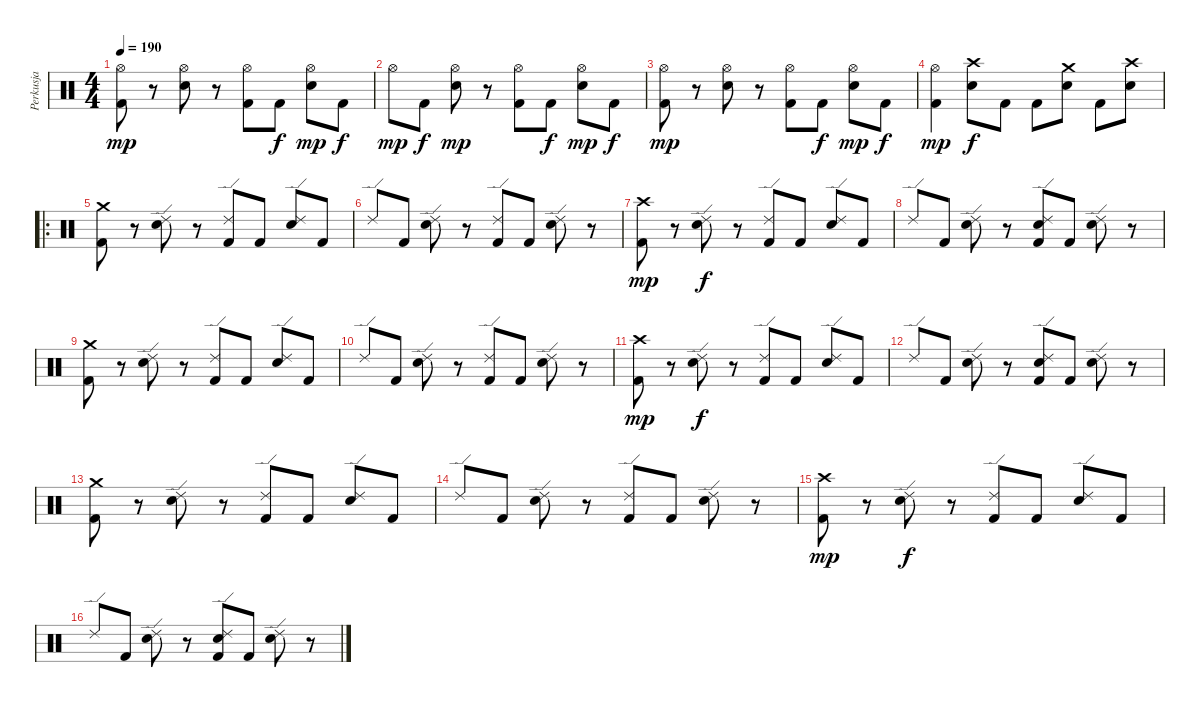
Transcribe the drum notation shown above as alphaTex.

\track ("Perkusja" "Perkusja") {instrument percussion}
\staff {score}
\articulation defaults
\ts (4 4)
\tempo 190
\clef neutral
\ks c
("Hi-Hat (open)" "Kick (hit) 2").8{dy mp} r.8 ("Hi-Hat (open)" "Snare (hit) 2").8 r.8 ("Hi-Hat (open)" "Kick (hit) 2").8 "Kick (hit) 2".8{dy f} ("Hi-Hat (open)" "Snare (hit) 2").8{dy mp} "Kick (hit) 2".8{dy f} |
"Hi-Hat (open)".8{dy mp} "Kick (hit) 2".8{dy f} ("Hi-Hat (open)" "Snare (hit) 2").8{dy mp} r.8 ("Hi-Hat (open)" "Kick (hit) 2").8 "Kick (hit) 2".8{dy f} ("Hi-Hat (open)" "Snare (hit) 2").8{dy mp} "Kick (hit) 2".8{dy f} |
("Hi-Hat (open)" "Kick (hit) 2").8{dy mp} r.8 ("Hi-Hat (open)" "Snare (hit) 2").8 r.8 ("Hi-Hat (open)" "Kick (hit) 2").8 "Kick (hit) 2".8{dy f} ("Hi-Hat (open)" "Snare (hit) 2").8{dy mp} "Kick (hit) 2".8{dy f} |
("Hi-Hat (open)" "Kick (hit) 2").4{dy mp} ("Crash high (hit)" "Snare (hit) 2").8{dy f} "Kick (hit) 2".8 "Kick (hit) 2".8 ("Crash medium (hit)" "Snare (hit) 2").8 "Kick (hit) 2".8 ("Crash high (hit)" "Snare (hit) 2").8 |
\ro
("Crash medium (hit)" "Kick (hit) 2").8 r.8 ("Ride (edge) 2" "Snare (hit) 2").8 r.8 ("Ride (edge) 2" "Kick (hit) 2").8 "Kick (hit) 2".8 ("Ride (edge) 2" "Snare (hit) 2").8 "Kick (hit) 2".8 |
"Ride (edge) 2".8 "Kick (hit) 2".8 ("Ride (edge) 2" "Snare (hit) 2").8 r.8 ("Ride (edge) 2" "Kick (hit) 2").8 "Kick (hit) 2".8 ("Ride (edge) 2" "Snare (hit) 2").8 r.8 |
("Crash high (hit)" "Kick (hit) 2").8{dy mp} r.8 ("Ride (edge) 2" "Snare (hit) 2").8{dy f} r.8 ("Ride (edge) 2" "Kick (hit) 2").8 "Kick (hit) 2".8 ("Ride (edge) 2" "Snare (hit) 2").8 "Kick (hit) 2".8 |
"Ride (edge) 2".8 "Kick (hit) 2".8 ("Ride (edge) 2" "Snare (hit) 2").8 r.8 ("Ride (edge) 2" "Snare (hit) 2" "Kick (hit) 2").8 "Kick (hit) 2".8 ("Ride (edge) 2" "Snare (hit) 2").8 r.8 |
("Crash medium (hit)" "Kick (hit) 2").8 r.8 ("Ride (edge) 2" "Snare (hit) 2").8 r.8 ("Ride (edge) 2" "Kick (hit) 2").8 "Kick (hit) 2".8 ("Ride (edge) 2" "Snare (hit) 2").8 "Kick (hit) 2".8 |
"Ride (edge) 2".8 "Kick (hit) 2".8 ("Ride (edge) 2" "Snare (hit) 2").8 r.8 ("Ride (edge) 2" "Kick (hit) 2").8 "Kick (hit) 2".8 ("Ride (edge) 2" "Snare (hit) 2").8 r.8 |
("Crash high (hit)" "Kick (hit) 2").8{dy mp} r.8 ("Ride (edge) 2" "Snare (hit) 2").8{dy f} r.8 ("Ride (edge) 2" "Kick (hit) 2").8 "Kick (hit) 2".8 ("Ride (edge) 2" "Snare (hit) 2").8 "Kick (hit) 2".8 |
"Ride (edge) 2".8 "Kick (hit) 2".8 ("Ride (edge) 2" "Snare (hit) 2").8 r.8 ("Ride (edge) 2" "Snare (hit) 2" "Kick (hit) 2").8 "Kick (hit) 2".8 ("Ride (edge) 2" "Snare (hit) 2").8 r.8 |
("Crash medium (hit)" "Kick (hit) 2").8 r.8 ("Ride (edge) 2" "Snare (hit) 2").8 r.8 ("Ride (edge) 2" "Kick (hit) 2").8 "Kick (hit) 2".8 ("Ride (edge) 2" "Snare (hit) 2").8 "Kick (hit) 2".8 |
"Ride (edge) 2".8 "Kick (hit) 2".8 ("Ride (edge) 2" "Snare (hit) 2").8 r.8 ("Ride (edge) 2" "Kick (hit) 2").8 "Kick (hit) 2".8 ("Ride (edge) 2" "Snare (hit) 2").8 r.8 |
("Crash high (hit)" "Kick (hit) 2").8{dy mp} r.8 ("Ride (edge) 2" "Snare (hit) 2").8{dy f} r.8 ("Ride (edge) 2" "Kick (hit) 2").8 "Kick (hit) 2".8 ("Ride (edge) 2" "Snare (hit) 2").8 "Kick (hit) 2".8 |
"Ride (edge) 2".8 "Kick (hit) 2".8 ("Ride (edge) 2" "Snare (hit) 2").8 r.8 ("Ride (edge) 2" "Snare (hit) 2" "Kick (hit) 2").8 "Kick (hit) 2".8 ("Ride (edge) 2" "Snare (hit) 2").8 r.8
